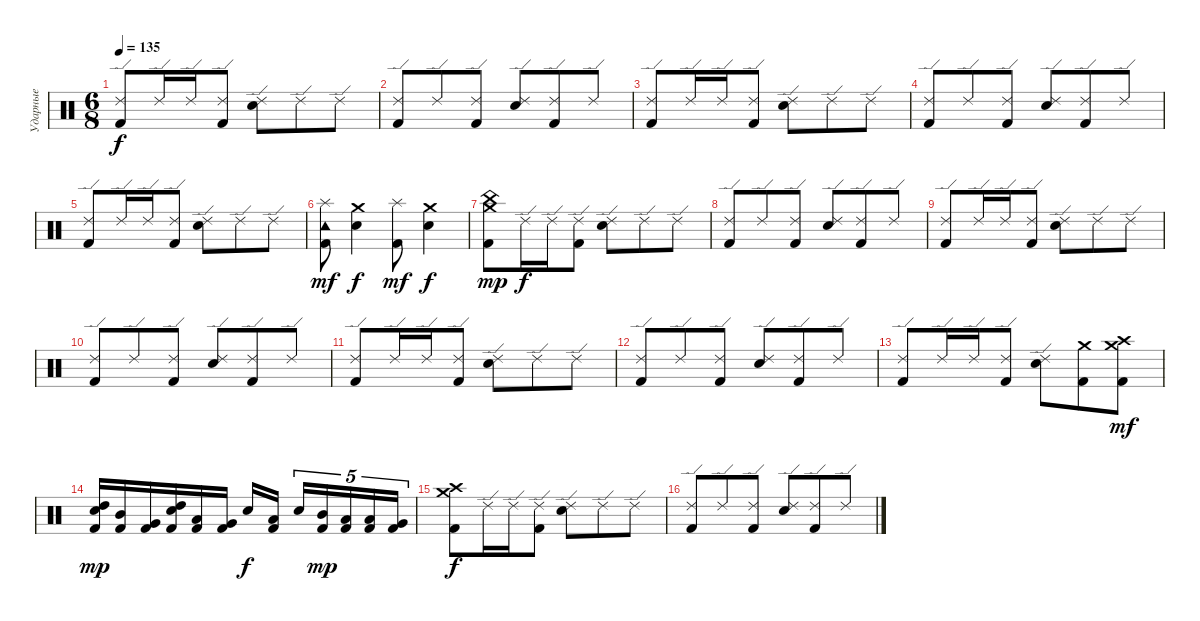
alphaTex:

\track ("Ударные" "Ударные") {instrument percussion}
\staff {score}
\articulation defaults
\ts (6 8)
\tempo 135
\clef neutral
\ks c
("Ride (edge) 2" "Kick (hit) 2").8{dy f} "Ride (edge) 2".16 "Ride (edge) 2".16 ("Ride (edge) 2" "Kick (hit) 2").8 ("Ride (edge) 2" "Electric Snare (hit)").8 "Ride (edge) 2".8 "Ride (edge) 2".8 |
("Ride (edge) 2" "Kick (hit) 2").8 "Ride (edge) 2".8 ("Ride (edge) 2" "Kick (hit) 2").8 ("Ride (edge) 2" "Electric Snare (hit)").8 ("Ride (edge) 2" "Kick (hit) 2").8 "Ride (edge) 2".8 |
("Ride (edge) 2" "Kick (hit) 2").8 "Ride (edge) 2".16 "Ride (edge) 2".16 ("Ride (edge) 2" "Kick (hit) 2").8 ("Ride (edge) 2" "Electric Snare (hit)").8 "Ride (edge) 2".8 "Ride (edge) 2".8 |
("Ride (edge) 2" "Kick (hit) 2").8 "Ride (edge) 2".8 ("Ride (edge) 2" "Kick (hit) 2").8 ("Ride (edge) 2" "Electric Snare (hit)").8 ("Ride (edge) 2" "Kick (hit) 2").8 "Ride (edge) 2".8 |
("Ride (edge) 2" "Kick (hit) 2").8 "Ride (edge) 2".16 "Ride (edge) 2".16 ("Ride (edge) 2" "Kick (hit) 2").8 ("Ride (edge) 2" "Electric Snare (hit)").8 "Ride (edge) 2".8 "Ride (edge) 2".8 |
("Kick (hit) 2" "Tambourine (hit)" "Splash (hit)").8{dy mf} ("Electric Snare (hit)" "Crash medium (hit)").4{dy f} ("Kick (hit) 2" "Splash (hit)").8{dy mf} ("Electric Snare (hit)" "Crash medium (hit)").4{dy f} |
("Crash medium (hit)" "China (hit)" "Kick (hit) 2").8{dy mp} "Ride (edge) 2".16{dy f} "Ride (edge) 2".16 ("Ride (edge) 2" "Kick (hit) 2").8 ("Ride (edge) 2" "Electric Snare (hit)").8 "Ride (edge) 2".8 "Ride (edge) 2".8 |
("Ride (edge) 2" "Kick (hit) 2").8 "Ride (edge) 2".8 ("Ride (edge) 2" "Kick (hit) 2").8 ("Ride (edge) 2" "Electric Snare (hit)").8 ("Ride (edge) 2" "Kick (hit) 2").8 "Ride (edge) 2".8 |
("Ride (edge) 2" "Kick (hit) 2").8 "Ride (edge) 2".16 "Ride (edge) 2".16 ("Ride (edge) 2" "Kick (hit) 2").8 ("Ride (edge) 2" "Electric Snare (hit)").8 "Ride (edge) 2".8 "Ride (edge) 2".8 |
("Ride (edge) 2" "Kick (hit) 2").8 "Ride (edge) 2".8 ("Ride (edge) 2" "Kick (hit) 2").8 ("Ride (edge) 2" "Electric Snare (hit)").8 ("Ride (edge) 2" "Kick (hit) 2").8 "Ride (edge) 2".8 |
("Ride (edge) 2" "Kick (hit) 2").8 "Ride (edge) 2".16 "Ride (edge) 2".16 ("Ride (edge) 2" "Kick (hit) 2").8 ("Ride (edge) 2" "Electric Snare (hit)").8 "Ride (edge) 2".8 "Ride (edge) 2".8 |
("Ride (edge) 2" "Kick (hit) 2").8 "Ride (edge) 2".8 ("Ride (edge) 2" "Kick (hit) 2").8 ("Ride (edge) 2" "Electric Snare (hit)").8 ("Ride (edge) 2" "Kick (hit) 2").8 "Ride (edge) 2".8 |
("Ride (edge) 2" "Kick (hit) 2").8 "Ride (edge) 2".16 "Ride (edge) 2".16 ("Ride (edge) 2" "Kick (hit) 2").8 ("Ride (edge) 2" "Electric Snare (hit)").8 ("Crash medium (hit)" "Kick (hit) 2").8 ("Crash high (hit)" "Crash medium (hit)" "Kick (hit) 2").8{dy mf} |
("Electric Snare (hit)" "High Tom (hit)" "Kick (hit) 2").16{dy mp} ("Mid Tom (hit)" "Kick (hit) 2").16 ("Very Low Tom (hit)" "Kick (hit) 2").16 ("Electric Snare (hit)" "High Tom (hit)" "Kick (hit) 2").16 ("Low Tom (hit)" "Kick (hit) 2").16 ("Very Low Tom (hit)" "Kick (hit) 2").16 "Electric Snare (hit)".16{dy f} ("Low Tom (hit)" "Kick (hit) 2").16 "Electric Snare (hit)".16{tu (5 4)} ("Mid Tom (hit)" "Kick (hit) 2").16{tu (5 4) dy mp} ("Low Tom (hit)" "Kick (hit) 2").16{tu (5 4)} ("Low Tom (hit)" "Kick (hit) 2").16{tu (5 4)} ("Very Low Tom (hit)" "Kick (hit) 2").16{tu (5 4)} |
\section ("" "")
("Crash high (hit)" "Crash medium (hit)" "Kick (hit) 2").8{dy f} "Ride (edge) 2".16 "Ride (edge) 2".16 ("Ride (edge) 2" "Kick (hit) 2").8 ("Ride (edge) 2" "Electric Snare (hit)").8 "Ride (edge) 2".8 "Ride (edge) 2".8 |
("Ride (edge) 2" "Kick (hit) 2").8 "Ride (edge) 2".8 ("Ride (edge) 2" "Kick (hit) 2").8 ("Ride (edge) 2" "Electric Snare (hit)").8 ("Ride (edge) 2" "Kick (hit) 2").8 "Ride (edge) 2".8
